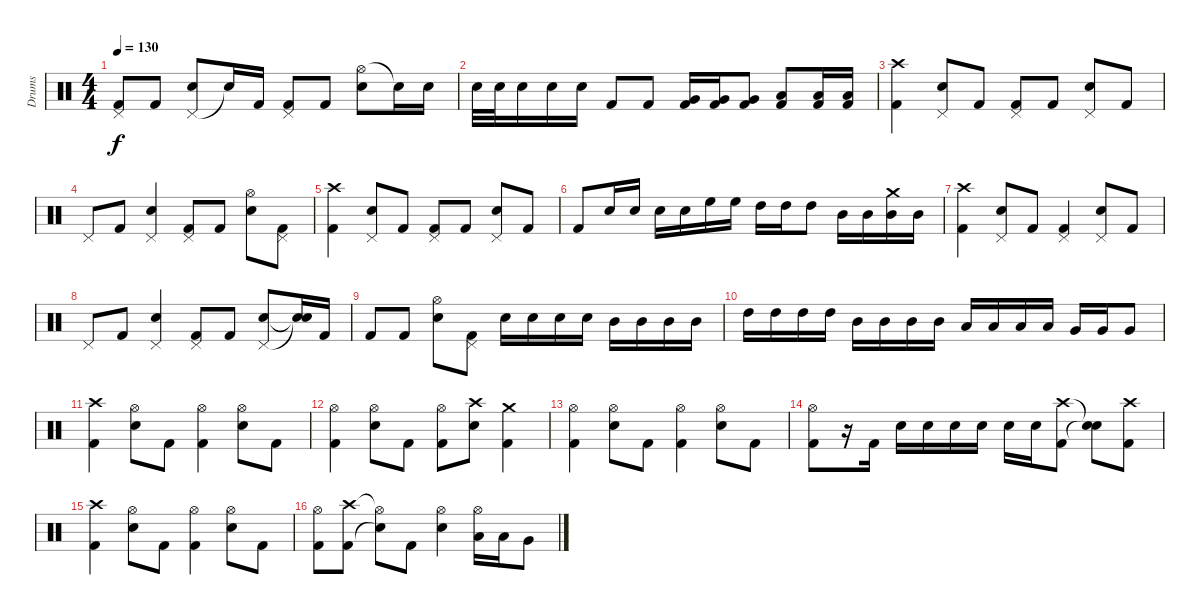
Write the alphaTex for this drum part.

\track ("Drums" "Drums") {instrument percussion}
\staff {score}
\articulation defaults
\ts (4 4)
\tempo 130
\clef neutral
\ks c
("Pedal Hi-Hat (hit)" "Kick (hit) 2").8{dy f} "Kick (hit) 2".8 ("Pedal Hi-Hat (hit)" "Electric Snare (hit)").8 "Snare (hit)"{t}.16 "Kick (hit) 2".16 ("Pedal Hi-Hat (hit)" "Kick (hit) 2").8 "Kick (hit) 2".8 ("Hi-Hat (open)" "Electric Snare (hit)").8 "Snare (hit)"{t}.16 "Electric Snare (hit)".16 |
"Electric Snare (hit)".32 "Electric Snare (hit)".32 "Electric Snare (hit)".16 "Electric Snare (hit)".16 "Electric Snare (hit)".16 "Kick (hit) 2".8 "Kick (hit) 2".8 ("Very Low Tom (hit)" "Kick (hit) 2").16 ("Very Low Tom (hit)" "Kick (hit) 2").16 ("Very Low Tom (hit)" "Kick (hit) 2").8 ("Low Floor Tom (hit)" "Kick (hit) 2").8 ("Low Floor Tom (hit)" "Kick (hit) 2").16 ("Low Floor Tom (hit)" "Kick (hit) 2").16 |
("Crash high (hit)" "Kick (hit) 2").4 ("Pedal Hi-Hat (hit)" "Electric Snare (hit)").8 "Kick (hit) 2".8 ("Pedal Hi-Hat (hit)" "Kick (hit) 2").8 "Kick (hit) 2".8 ("Pedal Hi-Hat (hit)" "Electric Snare (hit)").8 "Kick (hit) 2".8 |
"Pedal Hi-Hat (hit)".8 "Kick (hit) 2".8 ("Pedal Hi-Hat (hit)" "Electric Snare (hit)").4 ("Pedal Hi-Hat (hit)" "Kick (hit) 2").8 "Kick (hit) 2".8 ("Hi-Hat (open)" "Electric Snare (hit)").8 ("Pedal Hi-Hat (hit)" "Kick (hit) 2").8 |
("Crash high (hit)" "Kick (hit) 2").4 ("Pedal Hi-Hat (hit)" "Electric Snare (hit)").8 "Kick (hit) 2".8 ("Pedal Hi-Hat (hit)" "Kick (hit) 2").8 "Kick (hit) 2".8 ("Pedal Hi-Hat (hit)" "Electric Snare (hit)").8 "Kick (hit) 2".8 |
"Kick (hit) 2".8 "Electric Snare (hit)".16 "Electric Snare (hit)".16 "Electric Snare (hit)".16 "Electric Snare (hit)".16 "High Floor Tom (hit)".16 "High Floor Tom (hit)".16 "High Tom (hit)".16 "High Tom (hit)".16 "High Tom (hit)".8 "Mid Tom (hit)".16 "Mid Tom (hit)".16 ("Crash medium (hit)" "Mid Tom (hit)").16 "Mid Tom (hit)".16 |
("Crash high (hit)" "Kick (hit) 2").4 ("Pedal Hi-Hat (hit)" "Electric Snare (hit)").8 "Kick (hit) 2".8 ("Pedal Hi-Hat (hit)" "Kick (hit) 2").4 ("Pedal Hi-Hat (hit)" "Electric Snare (hit)").8 "Kick (hit) 2".8 |
"Pedal Hi-Hat (hit)".8 "Kick (hit) 2".8 ("Pedal Hi-Hat (hit)" "Electric Snare (hit)").4 ("Pedal Hi-Hat (hit)" "Kick (hit) 2").8 "Kick (hit) 2".8 ("Pedal Hi-Hat (hit)" "Electric Snare (hit)").8 ("Snare (hit)"{t} "Snare (hit)"{t}).16 "Kick (hit) 2".16 |
"Kick (hit) 2".8 "Kick (hit) 2".8 ("Hi-Hat (open)" "Electric Snare (hit)").8 ("Pedal Hi-Hat (hit)" "Kick (hit) 2").8 "Electric Snare (hit)".16 "Electric Snare (hit)".16 "Electric Snare (hit)".16 "Electric Snare (hit)".16 "Mid Tom (hit)".16 "Mid Tom (hit)".16 "Mid Tom (hit)".16 "Mid Tom (hit)".16 |
"High Tom (hit)".16 "High Tom (hit)".16 "High Tom (hit)".16 "High Tom (hit)".16 "Mid Tom (hit)".16 "Mid Tom (hit)".16 "Mid Tom (hit)".16 "Mid Tom (hit)".16 "Low Tom (hit)".16 "Low Tom (hit)".16 "Low Tom (hit)".16 "Low Tom (hit)".16 "Very Low Tom (hit)".16 "Very Low Tom (hit)".16 "Very Low Tom (hit)".8 |
("Crash high (hit)" "Kick (hit) 2").4 ("Hi-Hat (open)" "Electric Snare (hit)").8 "Kick (hit) 2".8 ("Hi-Hat (open)" "Kick (hit) 2").4 ("Hi-Hat (open)" "Electric Snare (hit)").8 "Kick (hit) 2".8 |
("Hi-Hat (open)" "Kick (hit) 2").4 ("Hi-Hat (open)" "Electric Snare (hit)").8 "Kick (hit) 2".8 ("Hi-Hat (open)" "Kick (hit) 2").8 ("Crash high (hit)" "Electric Snare (hit)").8 ("Crash medium (hit)" "Kick (hit) 2").4 |
("Hi-Hat (open)" "Kick (hit) 2").4 ("Hi-Hat (open)" "Electric Snare (hit)").8 "Kick (hit) 2".8 ("Hi-Hat (open)" "Kick (hit) 2").4 ("Hi-Hat (open)" "Electric Snare (hit)").8 "Kick (hit) 2".8 |
("Hi-Hat (open)" "Kick (hit) 2").8 r.16 "Kick (hit) 2".16 "Electric Snare (hit)".16 "Electric Snare (hit)".16 "Electric Snare (hit)".16 "Electric Snare (hit)".16 "Electric Snare (hit)".16 "Electric Snare (hit)".16 ("Crash high (hit)" "Kick (hit) 2").8 ("Snare (hit)"{t} "Snare (hit)"{t}).8 ("Crash high (hit)" "Kick (hit) 2").8 |
("Crash high (hit)" "Kick (hit) 2").4 ("Hi-Hat (open)" "Electric Snare (hit)").8 "Kick (hit) 2".8 ("Hi-Hat (open)" "Kick (hit) 2").4 ("Hi-Hat (open)" "Electric Snare (hit)").8 "Kick (hit) 2".8 |
("Hi-Hat (open)" "Kick (hit) 2").8 ("Crash high (hit)" "Kick (hit) 2").8 ("Hi-Hat (open)"{t} "Snare (hit)"{t}).8 "Kick (hit) 2".8 ("Hi-Hat (open)" "Electric Snare (hit)").4 ("Hi-Hat (open)" "Low Tom (hit)").16 "Low Tom (hit)".16 "Very Low Tom (hit)".8
